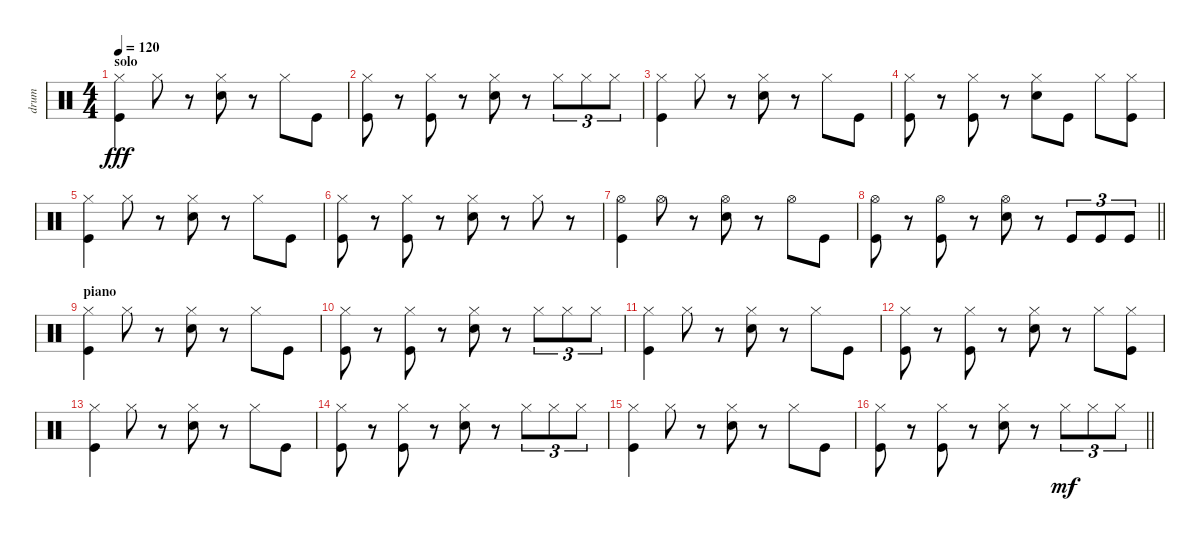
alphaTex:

\track ("drum" "drum") {instrument percussion}
\staff {score}
\articulation defaults
\ts (4 4)
\section ("" "solo")
\tempo 120
\clef neutral
\ks c
("Hi-Hat (closed)" "Kick (hit)").4{dy fff} "Hi-Hat (closed)".8 r.8 ("Hi-Hat (closed)" "Hand Clap (hit)").8 r.8 "Hi-Hat (closed)".8 "Kick (hit)".8 |
("Hi-Hat (closed)" "Kick (hit)").8 r.8 ("Hi-Hat (closed)" "Kick (hit)").8 r.8 ("Hi-Hat (closed)" "Hand Clap (hit)").8 r.8 "Hi-Hat (closed)".8{tu (3 2)} "Hi-Hat (closed)".8{tu (3 2)} "Hi-Hat (closed)".8{tu (3 2)} |
("Hi-Hat (closed)" "Kick (hit)").4 "Hi-Hat (closed)".8 r.8 ("Hi-Hat (closed)" "Hand Clap (hit)").8 r.8 "Hi-Hat (closed)".8 "Kick (hit)".8 |
("Hi-Hat (closed)" "Kick (hit)").8 r.8 ("Hi-Hat (closed)" "Kick (hit)").8 r.8 ("Hi-Hat (closed)" "Hand Clap (hit)").8 "Kick (hit)".8 "Hi-Hat (closed)".8 ("Hi-Hat (closed)" "Kick (hit)").8 |
("Hi-Hat (closed)" "Kick (hit)").4 "Hi-Hat (closed)".8 r.8 ("Hi-Hat (closed)" "Hand Clap (hit)").8 r.8 "Hi-Hat (closed)".8 "Kick (hit)".8 |
("Hi-Hat (closed)" "Kick (hit)").8 r.8 ("Hi-Hat (closed)" "Kick (hit)").8 r.8 ("Hi-Hat (closed)" "Hand Clap (hit)").8 r.8 "Hi-Hat (closed)".8 r.8 |
("Hi-Hat (open)" "Kick (hit)").4 "Hi-Hat (open)".8 r.8 ("Hi-Hat (open)" "Hand Clap (hit)").8 r.8 "Hi-Hat (open)".8 "Kick (hit)".8 |
\barLineRight lightlight
("Hi-Hat (open)" "Kick (hit)").8 r.8 ("Hi-Hat (open)" "Kick (hit)").8 r.8 ("Hi-Hat (open)" "Hand Clap (hit)").8 r.8 "Kick (hit)".8{tu (3 2)} "Kick (hit)".8{tu (3 2)} "Kick (hit)".8{tu (3 2)} |
\section ("" "piano")
("Hi-Hat (closed)" "Kick (hit)").4 "Hi-Hat (closed)".8 r.8 ("Hi-Hat (closed)" "Hand Clap (hit)").8 r.8 "Hi-Hat (closed)".8 "Kick (hit)".8 |
("Hi-Hat (closed)" "Kick (hit)").8 r.8 ("Hi-Hat (closed)" "Kick (hit)").8 r.8 ("Hi-Hat (closed)" "Hand Clap (hit)").8 r.8 "Hi-Hat (closed)".8{tu (3 2)} "Hi-Hat (closed)".8{tu (3 2)} "Hi-Hat (closed)".8{tu (3 2)} |
("Hi-Hat (closed)" "Kick (hit)").4 "Hi-Hat (closed)".8 r.8 ("Hi-Hat (closed)" "Hand Clap (hit)").8 r.8 "Hi-Hat (closed)".8 "Kick (hit)".8 |
("Hi-Hat (closed)" "Kick (hit)").8 r.8 ("Hi-Hat (closed)" "Kick (hit)").8 r.8 ("Hi-Hat (closed)" "Hand Clap (hit)").8 r.8 "Hi-Hat (closed)".8 ("Hi-Hat (closed)" "Kick (hit)").8 |
("Hi-Hat (closed)" "Kick (hit)").4 "Hi-Hat (closed)".8 r.8 ("Hi-Hat (closed)" "Hand Clap (hit)").8 r.8 "Hi-Hat (closed)".8 "Kick (hit)".8 |
("Hi-Hat (closed)" "Kick (hit)").8 r.8 ("Hi-Hat (closed)" "Kick (hit)").8 r.8 ("Hi-Hat (closed)" "Hand Clap (hit)").8 r.8 "Hi-Hat (closed)".8{tu (3 2)} "Hi-Hat (closed)".8{tu (3 2)} "Hi-Hat (closed)".8{tu (3 2)} |
("Hi-Hat (closed)" "Kick (hit)").4 "Hi-Hat (closed)".8 r.8 ("Hi-Hat (closed)" "Hand Clap (hit)").8 r.8 "Hi-Hat (closed)".8 "Kick (hit)".8 |
\barLineRight lightlight
("Hi-Hat (closed)" "Kick (hit)").8 r.8 ("Hi-Hat (closed)" "Kick (hit)").8 r.8 ("Hi-Hat (closed)" "Hand Clap (hit)").8 r.8 "Hi-Hat (closed)".8{tu (3 2) dy mf} "Hi-Hat (closed)".8{tu (3 2)} "Hi-Hat (closed)".8{tu (3 2)}
